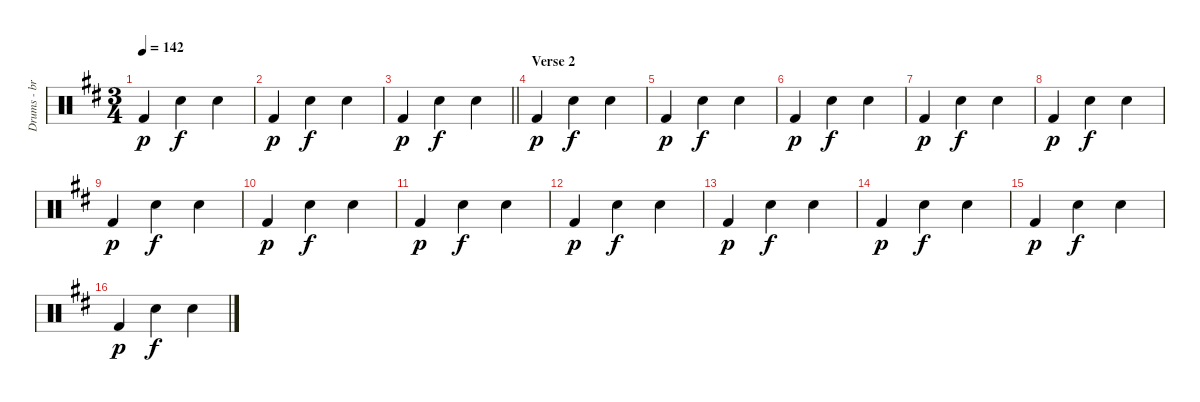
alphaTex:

\track ("Drums - brush set" "Drums - br") {instrument percussion}
\staff {score}
\articulation defaults
\ts (3 4)
\tempo 142
\clef neutral
\ks d "Kick (hit) 2".4{dy p} "Snare (hit) 2".4{dy f} "Snare (hit) 2".4
|
"Kick (hit) 2".4{dy p} "Snare (hit) 2".4{dy f} "Snare (hit) 2".4 |
\barLineRight lightlight "Kick (hit) 2".4{dy p} "Snare (hit) 2".4{dy f} "Snare (hit) 2".4
|
\section ("" "Verse 2")
"Kick (hit) 2".4{dy p} "Snare (hit) 2".4{dy f} "Snare (hit) 2".4 |
"Kick (hit) 2".4{dy p} "Snare (hit) 2".4{dy f} "Snare (hit) 2".4 |
"Kick (hit) 2".4{dy p} "Snare (hit) 2".4{dy f} "Snare (hit) 2".4 |
"Kick (hit) 2".4{dy p} "Snare (hit) 2".4{dy f} "Snare (hit) 2".4 |
"Kick (hit) 2".4{dy p} "Snare (hit) 2".4{dy f} "Snare (hit) 2".4 |
"Kick (hit) 2".4{dy p} "Snare (hit) 2".4{dy f} "Snare (hit) 2".4 |
"Kick (hit) 2".4{dy p} "Snare (hit) 2".4{dy f} "Snare (hit) 2".4 |
"Kick (hit) 2".4{dy p} "Snare (hit) 2".4{dy f} "Snare (hit) 2".4 |
"Kick (hit) 2".4{dy p} "Snare (hit) 2".4{dy f} "Snare (hit) 2".4 |
"Kick (hit) 2".4{dy p} "Snare (hit) 2".4{dy f} "Snare (hit) 2".4 |
"Kick (hit) 2".4{dy p} "Snare (hit) 2".4{dy f} "Snare (hit) 2".4 |
"Kick (hit) 2".4{dy p} "Snare (hit) 2".4{dy f} "Snare (hit) 2".4 |
"Kick (hit) 2".4{dy p} "Snare (hit) 2".4{dy f} "Snare (hit) 2".4
